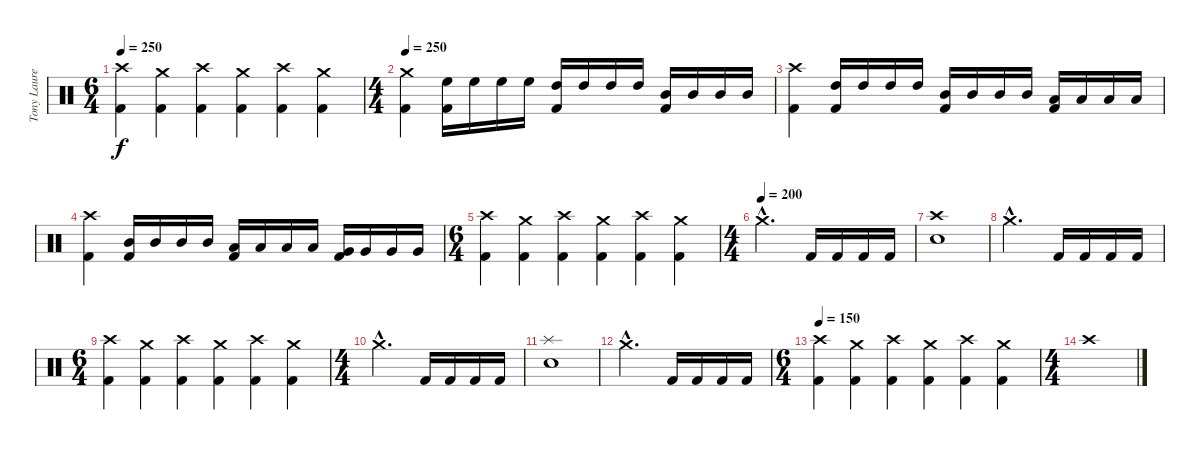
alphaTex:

\track ("Tony Laureano" "Tony Laure") {instrument percussion}
\staff {score}
\articulation defaults
\ts (6 4)
\tempo 250
\clef neutral
\ks c
("Crash high (hit)" "Kick (hit) 2").4{dy f} ("Crash medium (hit)" "Kick (hit) 2").4 ("Crash high (hit)" "Kick (hit) 2").4 ("Crash medium (hit)" "Kick (hit) 2").4 ("Crash high (hit)" "Kick (hit) 2").4 ("Crash medium (hit)" "Kick (hit) 2").4 |
\ts (4 4)
\tempo 250
("Crash medium (hit)" "Kick (hit) 2").4 ("High Floor Tom (hit)" "Kick (hit) 2").16 "High Floor Tom (hit)".16 "High Floor Tom (hit)".16 "High Floor Tom (hit)".16 ("High Tom (hit)" "Kick (hit) 2").16 "High Tom (hit)".16 "High Tom (hit)".16 "High Tom (hit)".16 ("Mid Tom (hit)" "Kick (hit) 2").16 "Mid Tom (hit)".16 "Mid Tom (hit)".16 "Mid Tom (hit)".16 |
("Crash high (hit)" "Kick (hit) 2").4 ("High Tom (hit)" "Kick (hit) 2").16 "High Tom (hit)".16 "High Tom (hit)".16 "High Tom (hit)".16 ("Mid Tom (hit)" "Kick (hit) 2").16 "Mid Tom (hit)".16 "Mid Tom (hit)".16 "Mid Tom (hit)".16 ("Low Tom (hit)" "Kick (hit) 2").16 "Low Tom (hit)".16 "Low Tom (hit)".16 "Low Tom (hit)".16 |
("Crash high (hit)" "Kick (hit) 2").4 ("Mid Tom (hit)" "Kick (hit) 2").16 "Mid Tom (hit)".16 "Mid Tom (hit)".16 "Mid Tom (hit)".16 ("Low Tom (hit)" "Kick (hit) 2").16 "Low Tom (hit)".16 "Low Tom (hit)".16 "Low Tom (hit)".16 ("Very Low Tom (hit)" "Kick (hit) 2").16 "Very Low Tom (hit)".16 "Very Low Tom (hit)".16 "Very Low Tom (hit)".16 |
\ts (6 4)
("Crash high (hit)" "Kick (hit) 2").4 ("Crash medium (hit)" "Kick (hit) 2").4 ("Crash high (hit)" "Kick (hit) 2").4 ("Crash medium (hit)" "Kick (hit) 2").4 ("Crash high (hit)" "Kick (hit) 2").4 ("Crash medium (hit)" "Kick (hit) 2").4 |
\ts (4 4)
\tempo (200)
"Crash medium (hit)"{hac}.2{d} "Kick (hit) 2".16 "Kick (hit) 2".16 "Kick (hit) 2".16 "Kick (hit) 2".16 |
("Crash high (hit)" "Electric Snare (hit)").1 |
"Crash medium (hit)"{hac}.2{d} "Kick (hit) 2".16 "Kick (hit) 2".16 "Kick (hit) 2".16 "Kick (hit) 2".16 |
\ts (6 4)
("Crash high (hit)" "Kick (hit) 2").4 ("Crash medium (hit)" "Kick (hit) 2").4 ("Crash high (hit)" "Kick (hit) 2").4 ("Crash medium (hit)" "Kick (hit) 2").4 ("Crash high (hit)" "Kick (hit) 2").4 ("Crash medium (hit)" "Kick (hit) 2").4 |
\ts (4 4)
"Crash medium (hit)"{hac}.2{d} "Kick (hit) 2".16 "Kick (hit) 2".16 "Kick (hit) 2".16 "Kick (hit) 2".16 |
("Splash (hit)" "Electric Snare (hit)").1 |
"Crash medium (hit)"{hac}.2{d} "Kick (hit) 2".16 "Kick (hit) 2".16 "Kick (hit) 2".16 "Kick (hit) 2".16 |
\ts (6 4)
\tempo 150
("Crash high (hit)" "Kick (hit) 2").4 ("Crash medium (hit)" "Kick (hit) 2").4 ("Crash high (hit)" "Kick (hit) 2").4 ("Crash medium (hit)" "Kick (hit) 2").4 ("Crash high (hit)" "Kick (hit) 2").4 ("Crash medium (hit)" "Kick (hit) 2").4 |
\ts (4 4)
"Crash high (hit)".1
